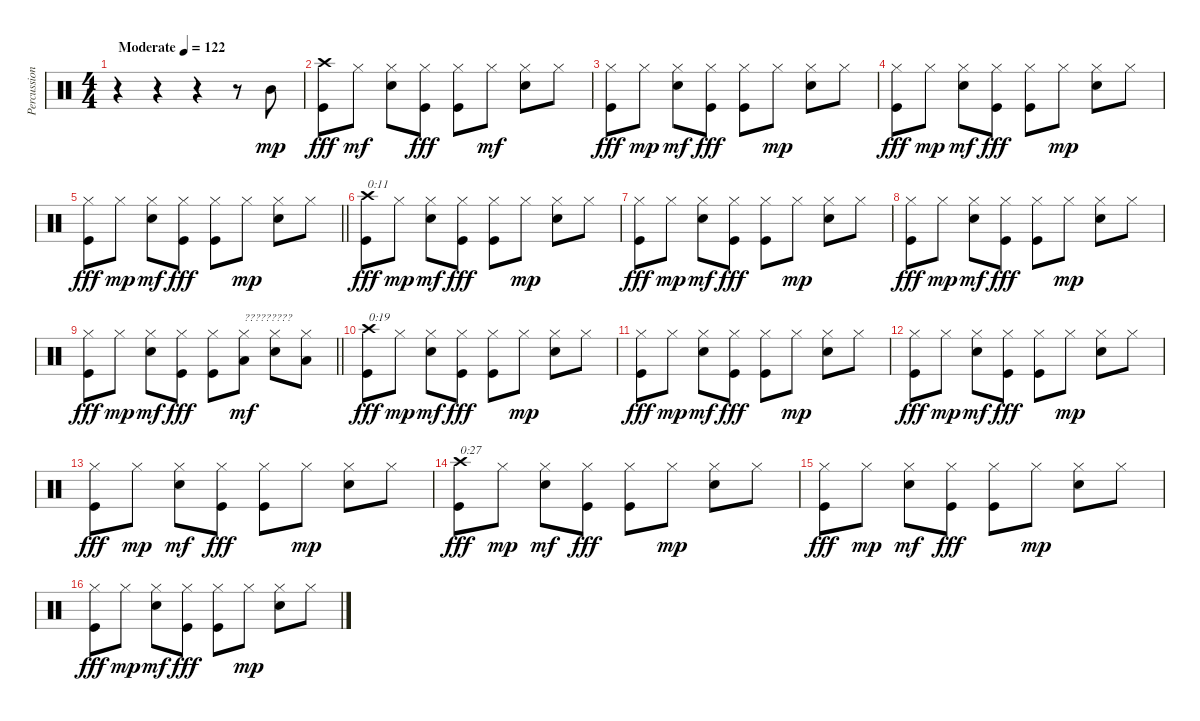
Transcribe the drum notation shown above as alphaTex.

\track ("Percussion" "Percussion") {instrument percussion}
\staff {score}
\articulation defaults
\ts (4 4)
\tempo (122 "Moderate")
\clef neutral
\ks c
r.4{dy mp} r.4 r.4 r.8 "Mid Tom (hit)".8 |
("Crash high (hit)" "Kick (hit)").8{dy fff} "Hi-Hat (closed)".8{dy mf} ("Hi-Hat (closed)" "Snare (hit) 2").8 ("Hi-Hat (closed)" "Kick (hit)").8{dy fff} ("Hi-Hat (closed)" "Kick (hit)").8 "Hi-Hat (closed)".8{dy mf} ("Hi-Hat (closed)" "Snare (hit) 2").8 "Hi-Hat (closed)".8 |
("Hi-Hat (closed)" "Kick (hit)").8{dy fff} "Hi-Hat (closed)".8{dy mp} ("Hi-Hat (closed)" "Snare (hit) 2").8{dy mf} ("Hi-Hat (closed)" "Kick (hit)").8{dy fff} ("Hi-Hat (closed)" "Kick (hit)").8 "Hi-Hat (closed)".8{dy mp} ("Hi-Hat (closed)" "Snare (hit) 2").8 "Hi-Hat (closed)".8 |
("Hi-Hat (closed)" "Kick (hit)").8{dy fff} "Hi-Hat (closed)".8{dy mp} ("Hi-Hat (closed)" "Snare (hit) 2").8{dy mf} ("Hi-Hat (closed)" "Kick (hit)").8{dy fff} ("Hi-Hat (closed)" "Kick (hit)").8 "Hi-Hat (closed)".8{dy mp} ("Hi-Hat (closed)" "Snare (hit) 2").8 "Hi-Hat (closed)".8 |
\barLineRight lightlight
("Hi-Hat (closed)" "Kick (hit)").8{dy fff} "Hi-Hat (closed)".8{dy mp} ("Hi-Hat (closed)" "Snare (hit) 2").8{dy mf} ("Hi-Hat (closed)" "Kick (hit)").8{dy fff} ("Hi-Hat (closed)" "Kick (hit)").8 "Hi-Hat (closed)".8{dy mp} ("Hi-Hat (closed)" "Snare (hit) 2").8 "Hi-Hat (closed)".8 |
("Crash high (hit)" "Kick (hit)").8{txt "0:11" dy fff} "Hi-Hat (closed)".8{dy mp} ("Hi-Hat (closed)" "Snare (hit) 2").8{dy mf} ("Hi-Hat (closed)" "Kick (hit)").8{dy fff} ("Hi-Hat (closed)" "Kick (hit)").8 "Hi-Hat (closed)".8{dy mp} ("Hi-Hat (closed)" "Snare (hit) 2").8 "Hi-Hat (closed)".8 |
("Hi-Hat (closed)" "Kick (hit)").8{dy fff} "Hi-Hat (closed)".8{dy mp} ("Hi-Hat (closed)" "Snare (hit) 2").8{dy mf} ("Hi-Hat (closed)" "Kick (hit)").8{dy fff} ("Hi-Hat (closed)" "Kick (hit)").8 "Hi-Hat (closed)".8{dy mp} ("Hi-Hat (closed)" "Snare (hit) 2").8 "Hi-Hat (closed)".8 |
("Hi-Hat (closed)" "Kick (hit)").8{dy fff} "Hi-Hat (closed)".8{dy mp} ("Hi-Hat (closed)" "Snare (hit) 2").8{dy mf} ("Hi-Hat (closed)" "Kick (hit)").8{dy fff} ("Hi-Hat (closed)" "Kick (hit)").8 "Hi-Hat (closed)".8{dy mp} ("Hi-Hat (closed)" "Snare (hit) 2").8 "Hi-Hat (closed)".8 |
\barLineRight lightlight
("Hi-Hat (closed)" "Kick (hit)").8{dy fff} "Hi-Hat (closed)".8{dy mp} ("Hi-Hat (closed)" "Snare (hit) 2").8{dy mf} ("Hi-Hat (closed)" "Kick (hit)").8{dy fff} ("Hi-Hat (closed)" "Kick (hit)").8 ("Hi-Hat (closed)" "Low Floor Tom (hit)").8{txt "?????????" dy mf} ("Hi-Hat (closed)" "Snare (hit) 2").8 ("Hi-Hat (closed)" "Low Tom (hit)").8 |
("Crash high (hit)" "Kick (hit)").8{txt "0:19" dy fff} "Hi-Hat (closed)".8{dy mp} ("Hi-Hat (closed)" "Snare (hit) 2").8{dy mf} ("Hi-Hat (closed)" "Kick (hit)").8{dy fff} ("Hi-Hat (closed)" "Kick (hit)").8 "Hi-Hat (closed)".8{dy mp} ("Hi-Hat (closed)" "Snare (hit) 2").8 "Hi-Hat (closed)".8 |
("Hi-Hat (closed)" "Kick (hit)").8{dy fff} "Hi-Hat (closed)".8{dy mp} ("Hi-Hat (closed)" "Snare (hit) 2").8{dy mf} ("Hi-Hat (closed)" "Kick (hit)").8{dy fff} ("Hi-Hat (closed)" "Kick (hit)").8 "Hi-Hat (closed)".8{dy mp} ("Hi-Hat (closed)" "Snare (hit) 2").8 "Hi-Hat (closed)".8 |
("Hi-Hat (closed)" "Kick (hit)").8{dy fff} "Hi-Hat (closed)".8{dy mp} ("Hi-Hat (closed)" "Snare (hit) 2").8{dy mf} ("Hi-Hat (closed)" "Kick (hit)").8{dy fff} ("Hi-Hat (closed)" "Kick (hit)").8 "Hi-Hat (closed)".8{dy mp} ("Hi-Hat (closed)" "Snare (hit) 2").8 "Hi-Hat (closed)".8 |
("Hi-Hat (closed)" "Kick (hit)").8{dy fff} "Hi-Hat (closed)".8{dy mp} ("Hi-Hat (closed)" "Snare (hit) 2").8{dy mf} ("Hi-Hat (closed)" "Kick (hit)").8{dy fff} ("Hi-Hat (closed)" "Kick (hit)").8 "Hi-Hat (closed)".8{dy mp} ("Hi-Hat (closed)" "Snare (hit) 2").8 "Hi-Hat (closed)".8 |
("Crash high (hit)" "Kick (hit)").8{txt "0:27" dy fff} "Hi-Hat (closed)".8{dy mp} ("Hi-Hat (closed)" "Snare (hit) 2").8{dy mf} ("Hi-Hat (closed)" "Kick (hit)").8{dy fff} ("Hi-Hat (closed)" "Kick (hit)").8 "Hi-Hat (closed)".8{dy mp} ("Hi-Hat (closed)" "Snare (hit) 2").8 "Hi-Hat (closed)".8 |
("Hi-Hat (closed)" "Kick (hit)").8{dy fff} "Hi-Hat (closed)".8{dy mp} ("Hi-Hat (closed)" "Snare (hit) 2").8{dy mf} ("Hi-Hat (closed)" "Kick (hit)").8{dy fff} ("Hi-Hat (closed)" "Kick (hit)").8 "Hi-Hat (closed)".8{dy mp} ("Hi-Hat (closed)" "Snare (hit) 2").8 "Hi-Hat (closed)".8 |
("Hi-Hat (closed)" "Kick (hit)").8{dy fff} "Hi-Hat (closed)".8{dy mp} ("Hi-Hat (closed)" "Snare (hit) 2").8{dy mf} ("Hi-Hat (closed)" "Kick (hit)").8{dy fff} ("Hi-Hat (closed)" "Kick (hit)").8 "Hi-Hat (closed)".8{dy mp} ("Hi-Hat (closed)" "Snare (hit) 2").8 "Hi-Hat (closed)".8
